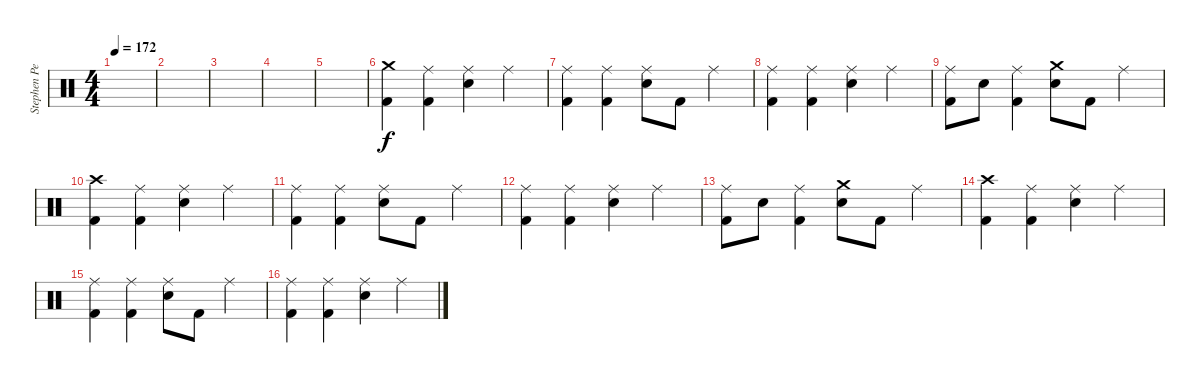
\track ("Stephen Perkins" "Stephen Pe") {instrument percussion}
\staff {score}
\articulation defaults
\ts (4 4)
\tempo 172
\clef neutral
\ks c
|
|
|
|
|
("Crash medium (hit)" "Kick (hit) 2").4 ("Ride (middle)" "Kick (hit) 2").4 ("Ride (middle)" "Snare (hit) 2").4 "Ride (middle)".4 |
("Ride (middle)" "Kick (hit) 2").4 ("Ride (middle)" "Kick (hit) 2").4 ("Ride (middle)" "Snare (hit) 2").8 "Kick (hit) 2".8 "Ride (middle)".4 |
("Ride (middle)" "Kick (hit) 2").4 ("Ride (middle)" "Kick (hit) 2").4 ("Ride (middle)" "Snare (hit) 2").4 "Ride (middle)".4 |
("Ride (middle)" "Kick (hit) 2").8 "Snare (hit) 2".8 ("Ride (middle)" "Kick (hit) 2").4 ("Crash medium (hit)" "Snare (hit) 2").8 "Kick (hit) 2".8 "Ride (middle)".4 |
("Crash high (hit)" "Kick (hit) 2").4 ("Ride (middle)" "Kick (hit) 2").4 ("Ride (middle)" "Snare (hit) 2").4 "Ride (middle)".4 |
("Ride (middle)" "Kick (hit) 2").4 ("Ride (middle)" "Kick (hit) 2").4 ("Ride (middle)" "Snare (hit) 2").8 "Kick (hit) 2".8 "Ride (middle)".4 |
("Ride (middle)" "Kick (hit) 2").4 ("Ride (middle)" "Kick (hit) 2").4 ("Ride (middle)" "Snare (hit) 2").4 "Ride (middle)".4 |
("Ride (middle)" "Kick (hit) 2").8 "Snare (hit) 2".8 ("Ride (middle)" "Kick (hit) 2").4 ("Crash medium (hit)" "Snare (hit) 2").8 "Kick (hit) 2".8 "Ride (middle)".4 |
("Crash high (hit)" "Kick (hit) 2").4 ("Ride (middle)" "Kick (hit) 2").4 ("Ride (middle)" "Snare (hit) 2").4 "Ride (middle)".4 |
("Ride (middle)" "Kick (hit) 2").4 ("Ride (middle)" "Kick (hit) 2").4 ("Ride (middle)" "Snare (hit) 2").8 "Kick (hit) 2".8 "Ride (middle)".4 |
("Ride (middle)" "Kick (hit) 2").4 ("Ride (middle)" "Kick (hit) 2").4 ("Ride (middle)" "Snare (hit) 2").4 "Ride (middle)".4
